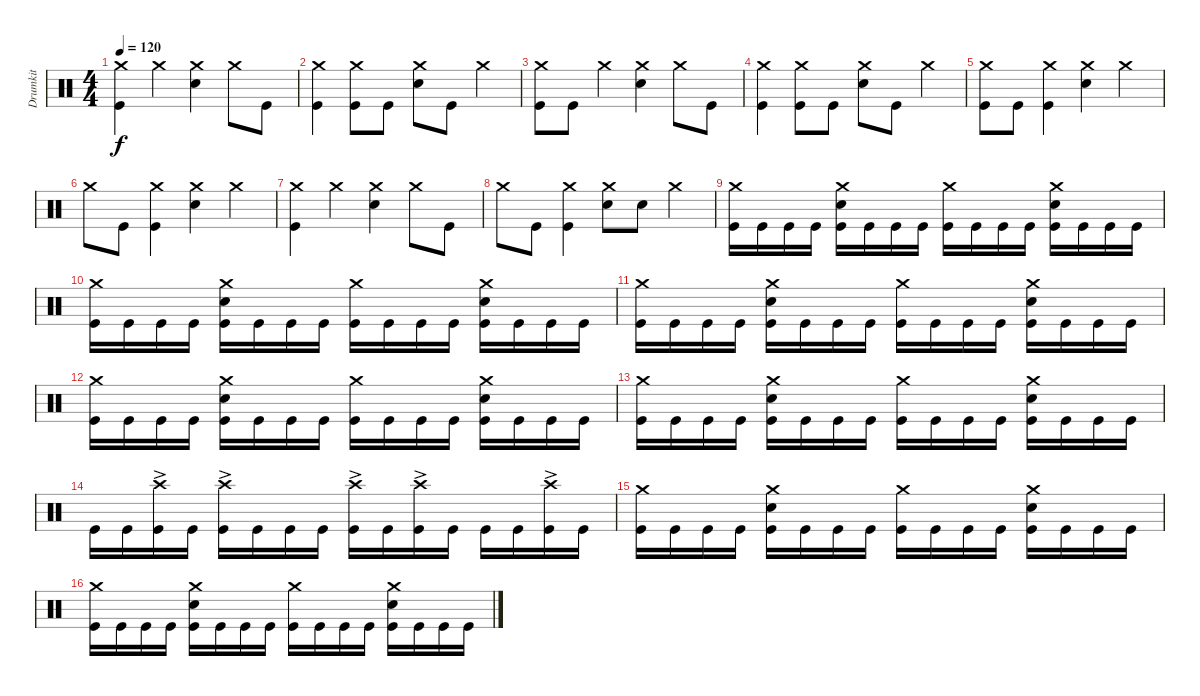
\track ("Drumkit" "Drumkit") {instrument percussion}
\staff {score}
\articulation defaults
\ts (4 4)
\tempo 120
\clef neutral
\ks c
("Crash medium (hit)" "Kick (hit)").4{dy f} "Crash medium (hit)".4 ("Crash medium (hit)" "Snare (hit) 2").4 "Crash medium (hit)".8 "Kick (hit)".8 |
("Kick (hit)" "Crash medium (hit)").4 ("Kick (hit)" "Crash medium (hit)").8 "Kick (hit)".8 ("Snare (hit) 2" "Crash medium (hit)").8 "Kick (hit)".8 "Crash medium (hit)".4 |
("Crash medium (hit)" "Kick (hit)").8 "Kick (hit)".8 "Crash medium (hit)".4 ("Crash medium (hit)" "Snare (hit) 2").4 "Crash medium (hit)".8 "Kick (hit)".8 |
("Kick (hit)" "Crash medium (hit)").4 ("Kick (hit)" "Crash medium (hit)").8 "Kick (hit)".8 ("Snare (hit) 2" "Crash medium (hit)").8 "Kick (hit)".8 "Crash medium (hit)".4 |
("Crash medium (hit)" "Kick (hit)").8 "Kick (hit)".8 ("Crash medium (hit)" "Kick (hit)").4 ("Crash medium (hit)" "Snare (hit) 2").4 "Crash medium (hit)".4 |
"Crash medium (hit)".8 "Kick (hit)".8 ("Crash medium (hit)" "Kick (hit)").4 ("Crash medium (hit)" "Snare (hit) 2").4 "Crash medium (hit)".4 |
("Crash medium (hit)" "Kick (hit)").4 "Crash medium (hit)".4 ("Crash medium (hit)" "Snare (hit) 2").4 "Crash medium (hit)".8 "Kick (hit)".8 |
"Crash medium (hit)".8 "Kick (hit)".8 ("Crash medium (hit)" "Kick (hit)").4 ("Crash medium (hit)" "Snare (hit) 2").8 "Snare (hit) 2".8 "Crash medium (hit)".4 |
("Crash medium (hit)" "Kick (hit)").16 "Kick (hit)".16 "Kick (hit)".16 "Kick (hit)".16 ("Crash medium (hit)" "Snare (hit) 2" "Kick (hit)").16 "Kick (hit)".16 "Kick (hit)".16 "Kick (hit)".16 ("Crash medium (hit)" "Kick (hit)").16 "Kick (hit)".16 "Kick (hit)".16 "Kick (hit)".16 ("Crash medium (hit)" "Snare (hit) 2" "Kick (hit)").16 "Kick (hit)".16 "Kick (hit)".16 "Kick (hit)".16 |
("Crash medium (hit)" "Kick (hit)").16 "Kick (hit)".16 "Kick (hit)".16 "Kick (hit)".16 ("Crash medium (hit)" "Snare (hit) 2" "Kick (hit)").16 "Kick (hit)".16 "Kick (hit)".16 "Kick (hit)".16 ("Crash medium (hit)" "Kick (hit)").16 "Kick (hit)".16 "Kick (hit)".16 "Kick (hit)".16 ("Crash medium (hit)" "Snare (hit) 2" "Kick (hit)").16 "Kick (hit)".16 "Kick (hit)".16 "Kick (hit)".16 |
("Crash medium (hit)" "Kick (hit)").16 "Kick (hit)".16 "Kick (hit)".16 "Kick (hit)".16 ("Crash medium (hit)" "Snare (hit) 2" "Kick (hit)").16 "Kick (hit)".16 "Kick (hit)".16 "Kick (hit)".16 ("Crash medium (hit)" "Kick (hit)").16 "Kick (hit)".16 "Kick (hit)".16 "Kick (hit)".16 ("Crash medium (hit)" "Snare (hit) 2" "Kick (hit)").16 "Kick (hit)".16 "Kick (hit)".16 "Kick (hit)".16 |
("Crash medium (hit)" "Kick (hit)").16 "Kick (hit)".16 "Kick (hit)".16 "Kick (hit)".16 ("Crash medium (hit)" "Snare (hit) 2" "Kick (hit)").16 "Kick (hit)".16 "Kick (hit)".16 "Kick (hit)".16 ("Crash medium (hit)" "Kick (hit)").16 "Kick (hit)".16 "Kick (hit)".16 "Kick (hit)".16 ("Crash medium (hit)" "Snare (hit) 2" "Kick (hit)").16 "Kick (hit)".16 "Kick (hit)".16 "Kick (hit)".16 |
("Crash medium (hit)" "Kick (hit)").16 "Kick (hit)".16 "Kick (hit)".16 "Kick (hit)".16 ("Crash medium (hit)" "Snare (hit) 2" "Kick (hit)").16 "Kick (hit)".16 "Kick (hit)".16 "Kick (hit)".16 ("Crash medium (hit)" "Kick (hit)").16 "Kick (hit)".16 "Kick (hit)".16 "Kick (hit)".16 ("Crash medium (hit)" "Snare (hit) 2" "Kick (hit)").16 "Kick (hit)".16 "Kick (hit)".16 "Kick (hit)".16 |
"Kick (hit)".16 "Kick (hit)".16 ("Crash high (hit)"{ac} "Kick (hit)").16 "Kick (hit)".16 ("Crash high (hit)"{ac} "Kick (hit)").16 "Kick (hit)".16 "Kick (hit)".16 "Kick (hit)".16 ("Crash high (hit)"{ac} "Kick (hit)").16 "Kick (hit)".16 ("Crash high (hit)"{ac} "Kick (hit)").16 "Kick (hit)".16 "Kick (hit)".16 "Kick (hit)".16 ("Crash high (hit)"{ac} "Kick (hit)").16 "Kick (hit)".16 |
("Crash medium (hit)" "Kick (hit)").16 "Kick (hit)".16 "Kick (hit)".16 "Kick (hit)".16 ("Crash medium (hit)" "Snare (hit) 2" "Kick (hit)").16 "Kick (hit)".16 "Kick (hit)".16 "Kick (hit)".16 ("Crash medium (hit)" "Kick (hit)").16 "Kick (hit)".16 "Kick (hit)".16 "Kick (hit)".16 ("Crash medium (hit)" "Snare (hit) 2" "Kick (hit)").16 "Kick (hit)".16 "Kick (hit)".16 "Kick (hit)".16 |
("Crash medium (hit)" "Kick (hit)").16 "Kick (hit)".16 "Kick (hit)".16 "Kick (hit)".16 ("Crash medium (hit)" "Snare (hit) 2" "Kick (hit)").16 "Kick (hit)".16 "Kick (hit)".16 "Kick (hit)".16 ("Crash medium (hit)" "Kick (hit)").16 "Kick (hit)".16 "Kick (hit)".16 "Kick (hit)".16 ("Crash medium (hit)" "Snare (hit) 2" "Kick (hit)").16 "Kick (hit)".16 "Kick (hit)".16 "Kick (hit)".16
